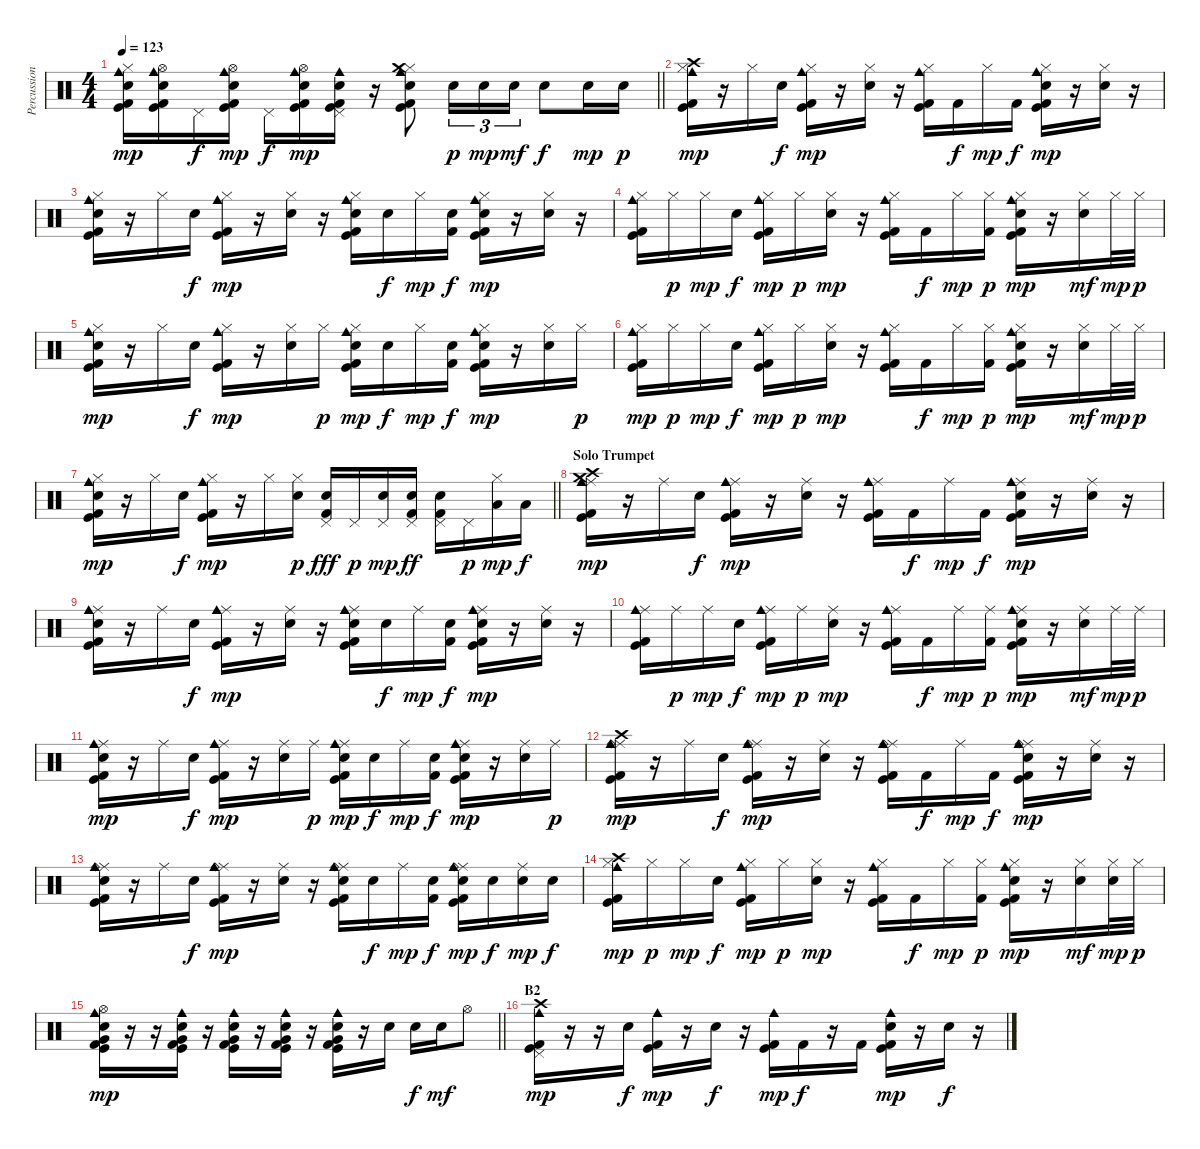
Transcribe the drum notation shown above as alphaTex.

\track ("Percussion" "Percussion") {instrument percussion}
\staff {score}
\articulation defaults
\ts (4 4)
\tempo 123
\clef neutral
\barLineRight lightlight
\ks c
("Hi-Hat (closed)" "Cowbell medium (hit)" "Kick (hit)" "Electric Snare (hit)" "Kick (hit) 2").16{dy mp} ("Hi-Hat (open)" "Cowbell medium (hit)" "Kick (hit)" "Electric Snare (hit)" "Kick (hit) 2").16 "Pedal Hi-Hat (hit)".16{dy f} ("Hi-Hat (open)" "Cowbell medium (hit)" "Kick (hit)" "Electric Snare (hit)" "Kick (hit) 2").16{dy mp} "Pedal Hi-Hat (hit)".16{dy f} ("Hi-Hat (open)" "Cowbell medium (hit)" "Kick (hit)" "Electric Snare (hit)" "Kick (hit) 2").16{dy mp} ("Pedal Hi-Hat (hit)" "Cowbell medium (hit)" "Kick (hit)" "Electric Snare (hit)" "Kick (hit) 2").16 r.16 ("Hi-Hat (closed)" "Cowbell medium (hit)" "Kick (hit)" "Crash medium (hit)" "Electric Snare (hit)" "Kick (hit) 2").8 "Electric Snare (hit)".16{tu (3 2) dy p} "Electric Snare (hit)".16{tu (3 2) dy mp} "Electric Snare (hit)".16{tu (3 2) dy mf} "Electric Snare (hit)".8{dy f} "Electric Snare (hit)".16{dy mp} "Electric Snare (hit)".16{dy p} |
("Hi-Hat (closed)" "Cowbell medium (hit)" "Kick (hit)" "Crash high (hit)" "Kick (hit) 2").16{dy mp} r.16 "Hi-Hat (closed)".16 "Electric Snare (hit)".16{dy f} ("Hi-Hat (closed)" "Cowbell medium (hit)" "Kick (hit)" "Kick (hit) 2").16{dy mp} r.16 ("Hi-Hat (closed)" "Electric Snare (hit)").16 r.16 ("Hi-Hat (closed)" "Cowbell medium (hit)" "Kick (hit)" "Kick (hit) 2").16 "Kick (hit) 2".16{dy f} "Hi-Hat (closed)".16{dy mp} "Kick (hit) 2".16{dy f} ("Hi-Hat (closed)" "Cowbell medium (hit)" "Kick (hit)" "Electric Snare (hit)" "Kick (hit) 2").16{dy mp} r.16 ("Hi-Hat (closed)" "Electric Snare (hit)").16 r.16 |
("Hi-Hat (closed)" "Cowbell medium (hit)" "Kick (hit)" "Electric Snare (hit)" "Kick (hit) 2").16 r.16 "Hi-Hat (closed)".16 "Electric Snare (hit)".16{dy f} ("Hi-Hat (closed)" "Cowbell medium (hit)" "Kick (hit)" "Kick (hit) 2").16{dy mp} r.16 ("Hi-Hat (closed)" "Electric Snare (hit)").16 r.16 ("Hi-Hat (closed)" "Cowbell medium (hit)" "Kick (hit)" "Electric Snare (hit)" "Kick (hit) 2").16 "Electric Snare (hit)".16{dy f} "Hi-Hat (closed)".16{dy mp} ("Electric Snare (hit)" "Kick (hit) 2").16{dy f} ("Hi-Hat (closed)" "Cowbell medium (hit)" "Kick (hit)" "Electric Snare (hit)" "Kick (hit) 2").16{dy mp} r.16 ("Hi-Hat (closed)" "Electric Snare (hit)").16 r.16 |
("Hi-Hat (closed)" "Cowbell medium (hit)" "Kick (hit)" "Kick (hit) 2").16 "Hi-Hat (closed)".16{dy p} "Hi-Hat (closed)".16{dy mp} "Electric Snare (hit)".16{dy f} ("Hi-Hat (closed)" "Cowbell medium (hit)" "Kick (hit)" "Kick (hit) 2").16{dy mp} "Hi-Hat (closed)".16{dy p} ("Hi-Hat (closed)" "Electric Snare (hit)").16{dy mp} r.16 ("Hi-Hat (closed)" "Cowbell medium (hit)" "Kick (hit)" "Kick (hit) 2").16 "Kick (hit) 2".16{dy f} "Hi-Hat (closed)".16{dy mp} ("Hi-Hat (closed)" "Kick (hit) 2").16{dy p} ("Hi-Hat (closed)" "Cowbell medium (hit)" "Kick (hit)" "Electric Snare (hit)" "Kick (hit) 2").16{dy mp} r.16 ("Hi-Hat (closed)" "Electric Snare (hit)").16{dy mf} "Hi-Hat (closed)".32{dy mp} "Hi-Hat (closed)".32{dy p} |
("Hi-Hat (closed)" "Cowbell medium (hit)" "Kick (hit)" "Electric Snare (hit)" "Kick (hit) 2").16{dy mp} r.16 "Hi-Hat (closed)".16 "Electric Snare (hit)".16{dy f} ("Hi-Hat (closed)" "Cowbell medium (hit)" "Kick (hit)" "Kick (hit) 2").16{dy mp} r.16 ("Hi-Hat (closed)" "Electric Snare (hit)").16 "Hi-Hat (closed)".16{dy p} ("Hi-Hat (closed)" "Cowbell medium (hit)" "Kick (hit)" "Electric Snare (hit)" "Kick (hit) 2").16{dy mp} "Electric Snare (hit)".16{dy f} "Hi-Hat (closed)".16{dy mp} ("Electric Snare (hit)" "Kick (hit) 2").16{dy f} ("Hi-Hat (closed)" "Cowbell medium (hit)" "Kick (hit)" "Electric Snare (hit)" "Kick (hit) 2").16{dy mp} r.16 ("Hi-Hat (closed)" "Electric Snare (hit)").16 "Hi-Hat (closed)".16{dy p} |
("Hi-Hat (closed)" "Cowbell medium (hit)" "Kick (hit)" "Kick (hit) 2").16{dy mp} "Hi-Hat (closed)".16{dy p} "Hi-Hat (closed)".16{dy mp} "Electric Snare (hit)".16{dy f} ("Hi-Hat (closed)" "Cowbell medium (hit)" "Kick (hit)" "Kick (hit) 2").16{dy mp} "Hi-Hat (closed)".16{dy p} ("Hi-Hat (closed)" "Electric Snare (hit)").16{dy mp} r.16 ("Hi-Hat (closed)" "Cowbell medium (hit)" "Kick (hit)" "Kick (hit) 2").16 "Kick (hit) 2".16{dy f} "Hi-Hat (closed)".16{dy mp} ("Hi-Hat (closed)" "Kick (hit) 2").16{dy p} ("Hi-Hat (closed)" "Cowbell medium (hit)" "Kick (hit)" "Electric Snare (hit)" "Kick (hit) 2").16{dy mp} r.16 ("Hi-Hat (closed)" "Electric Snare (hit)").16{dy mf} "Hi-Hat (closed)".32{dy mp} "Hi-Hat (closed)".32{dy p} |
\barLineRight lightlight
("Hi-Hat (closed)" "Cowbell medium (hit)" "Kick (hit)" "Electric Snare (hit)" "Kick (hit) 2").16{dy mp} r.16 "Hi-Hat (closed)".16 "Electric Snare (hit)".16{dy f} ("Hi-Hat (closed)" "Cowbell medium (hit)" "Kick (hit)" "Kick (hit) 2").16{dy mp} r.16 "Hi-Hat (closed)".16 ("Hi-Hat (closed)" "Electric Snare (hit)").16{dy p} ("Pedal Hi-Hat (hit)" "Electric Snare (hit)" "Kick (hit) 2").16{dy fff} "Pedal Hi-Hat (hit)".16{dy p} ("Pedal Hi-Hat (hit)" "Electric Snare (hit)").16{dy mp} ("Pedal Hi-Hat (hit)" "Electric Snare (hit)" "Kick (hit) 2").16{dy ff} ("Pedal Hi-Hat (hit)" "Electric Snare (hit)" "Kick (hit) 2").16 "Pedal Hi-Hat (hit)".16{dy p} ("Hi-Hat (closed)" "Low Tom (hit)").16{dy mp} "Low Tom (hit)".16{dy f} |
\section ("" "Solo Trumpet")
("Ride (middle)" "Cowbell medium (hit)" "Kick (hit)" "Crash high (hit)" "Crash medium (hit)" "Kick (hit) 2").16{dy mp} r.16 "Ride (middle)".16 "Electric Snare (hit)".16{dy f} ("Ride (middle)" "Cowbell medium (hit)" "Kick (hit)" "Kick (hit) 2").16{dy mp} r.16 ("Ride (middle)" "Electric Snare (hit)").16 r.16 ("Ride (middle)" "Cowbell medium (hit)" "Kick (hit)" "Kick (hit) 2").16 "Kick (hit) 2".16{dy f} "Ride (middle)".16{dy mp} "Kick (hit) 2".16{dy f} ("Ride (middle)" "Cowbell medium (hit)" "Kick (hit)" "Electric Snare (hit)" "Kick (hit) 2").16{dy mp} r.16 ("Ride (middle)" "Electric Snare (hit)").16 r.16 |
("Ride (middle)" "Cowbell medium (hit)" "Kick (hit)" "Electric Snare (hit)" "Kick (hit) 2").16 r.16 "Ride (middle)".16 "Electric Snare (hit)".16{dy f} ("Ride (middle)" "Cowbell medium (hit)" "Kick (hit)" "Kick (hit) 2").16{dy mp} r.16 ("Ride (middle)" "Electric Snare (hit)").16 r.16 ("Ride (middle)" "Cowbell medium (hit)" "Kick (hit)" "Electric Snare (hit)" "Kick (hit) 2").16 "Electric Snare (hit)".16{dy f} "Ride (middle)".16{dy mp} ("Electric Snare (hit)" "Kick (hit) 2").16{dy f} ("Ride (middle)" "Cowbell medium (hit)" "Kick (hit)" "Electric Snare (hit)" "Kick (hit) 2").16{dy mp} r.16 ("Ride (middle)" "Electric Snare (hit)").16 r.16 |
("Ride (middle)" "Cowbell medium (hit)" "Kick (hit)" "Kick (hit) 2").16 "Ride (middle)".16{dy p} "Ride (middle)".16{dy mp} "Electric Snare (hit)".16{dy f} ("Ride (middle)" "Cowbell medium (hit)" "Kick (hit)" "Kick (hit) 2").16{dy mp} "Ride (middle)".16{dy p} ("Ride (middle)" "Electric Snare (hit)").16{dy mp} r.16 ("Ride (middle)" "Cowbell medium (hit)" "Kick (hit)" "Kick (hit) 2").16 "Kick (hit) 2".16{dy f} "Ride (middle)".16{dy mp} ("Ride (middle)" "Kick (hit) 2").16{dy p} ("Ride (middle)" "Cowbell medium (hit)" "Kick (hit)" "Electric Snare (hit)" "Kick (hit) 2").16{dy mp} r.16 ("Ride (middle)" "Electric Snare (hit)").16{dy mf} "Ride (middle)".32{dy mp} "Ride (middle)".32{dy p} |
("Ride (middle)" "Cowbell medium (hit)" "Kick (hit)" "Electric Snare (hit)" "Kick (hit) 2").16{dy mp} r.16 "Ride (middle)".16 "Electric Snare (hit)".16{dy f} ("Ride (middle)" "Cowbell medium (hit)" "Kick (hit)" "Kick (hit) 2").16{dy mp} r.16 ("Ride (middle)" "Electric Snare (hit)").16 "Ride (middle)".16{dy p} ("Ride (middle)" "Cowbell medium (hit)" "Kick (hit)" "Electric Snare (hit)" "Kick (hit) 2").16{dy mp} "Electric Snare (hit)".16{dy f} "Ride (middle)".16{dy mp} ("Electric Snare (hit)" "Kick (hit) 2").16{dy f} ("Ride (middle)" "Cowbell medium (hit)" "Kick (hit)" "Electric Snare (hit)" "Kick (hit) 2").16{dy mp} r.16 ("Ride (middle)" "Electric Snare (hit)").16 "Ride (middle)".16{dy p} |
("Ride (middle)" "Cowbell medium (hit)" "Kick (hit)" "Crash high (hit)" "Ride (bell)" "Kick (hit) 2").16{dy mp} r.16 "Ride (middle)".16 "Electric Snare (hit)".16{dy f} ("Ride (middle)" "Cowbell medium (hit)" "Kick (hit)" "Ride (bell)" "Kick (hit) 2").16{dy mp} r.16 ("Ride (middle)" "Electric Snare (hit)").16 r.16 ("Ride (middle)" "Cowbell medium (hit)" "Kick (hit)" "Ride (bell)" "Kick (hit) 2").16 "Kick (hit) 2".16{dy f} "Ride (middle)".16{dy mp} "Kick (hit) 2".16{dy f} ("Ride (middle)" "Cowbell medium (hit)" "Kick (hit)" "Ride (bell)" "Electric Snare (hit)" "Kick (hit) 2").16{dy mp} r.16 ("Ride (middle)" "Electric Snare (hit)").16 r.16 |
("Ride (middle)" "Cowbell medium (hit)" "Kick (hit)" "Ride (bell)" "Electric Snare (hit)" "Kick (hit) 2").16 r.16 "Ride (middle)".16 "Electric Snare (hit)".16{dy f} ("Ride (middle)" "Cowbell medium (hit)" "Kick (hit)" "Ride (bell)" "Kick (hit) 2").16{dy mp} r.16 ("Ride (middle)" "Electric Snare (hit)").16 r.16 ("Ride (middle)" "Cowbell medium (hit)" "Kick (hit)" "Ride (bell)" "Electric Snare (hit)" "Kick (hit) 2").16 "Electric Snare (hit)".16{dy f} "Ride (middle)".16{dy mp} ("Electric Snare (hit)" "Kick (hit) 2").16{dy f} ("Ride (middle)" "Cowbell medium (hit)" "Kick (hit)" "Ride (bell)" "Electric Snare (hit)" "Kick (hit) 2").16{dy mp} "Electric Snare (hit)".16{dy f} ("Ride (middle)" "Electric Snare (hit)").16{dy mp} "Electric Snare (hit)".16{dy f} |
("Hi-Hat (closed)" "Cowbell medium (hit)" "Kick (hit)" "Crash high (hit)" "Kick (hit) 2").16{dy mp} "Hi-Hat (closed)".16{dy p} "Hi-Hat (closed)".16{dy mp} "Electric Snare (hit)".16{dy f} ("Hi-Hat (closed)" "Cowbell medium (hit)" "Kick (hit)" "Kick (hit) 2").16{dy mp} "Hi-Hat (closed)".16{dy p} ("Hi-Hat (closed)" "Electric Snare (hit)").16{dy mp} r.16 ("Hi-Hat (closed)" "Cowbell medium (hit)" "Kick (hit)" "Kick (hit) 2").16 "Kick (hit) 2".16{dy f} "Hi-Hat (closed)".16{dy mp} ("Hi-Hat (closed)" "Kick (hit) 2").16{dy p} ("Hi-Hat (closed)" "Cowbell medium (hit)" "Kick (hit)" "Electric Snare (hit)" "Kick (hit) 2").16{dy mp} r.16 ("Hi-Hat (closed)" "Electric Snare (hit)").16{dy mf} ("Hi-Hat (closed)" "Electric Snare (hit)").32{dy mp} "Hi-Hat (closed)".32{dy p} |
\barLineRight lightlight
("Hi-Hat (open)" "Cowbell medium (hit)" "Kick (hit)" "Very Low Tom (hit)" "Electric Snare (hit)" "Kick (hit) 2").16{dy mp} r.16 r.16 ("Cowbell medium (hit)" "Kick (hit)" "Very Low Tom (hit)" "Electric Snare (hit)" "Kick (hit) 2").16 r.16 ("Cowbell medium (hit)" "Kick (hit)" "Very Low Tom (hit)" "Electric Snare (hit)" "Kick (hit) 2").16 r.16 ("Cowbell medium (hit)" "Kick (hit)" "Very Low Tom (hit)" "Electric Snare (hit)" "Kick (hit) 2").16 r.16 ("Cowbell medium (hit)" "Kick (hit)" "Very Low Tom (hit)" "Electric Snare (hit)" "Kick (hit) 2").16 r.16 "Electric Snare (hit)".16 "Electric Snare (hit)".16{dy f} "Electric Snare (hit)".16{dy mf} "Hi-Hat (open)".8 |
\section ("" "B2")
("Pedal Hi-Hat (hit)" "Cowbell medium (hit)" "Kick (hit)" "Crash high (hit)" "Kick (hit) 2").16{dy mp} r.16 r.16 "Electric Snare (hit)".16{dy f} ("Cowbell medium (hit)" "Kick (hit)" "Kick (hit) 2").16{dy mp} r.16 "Electric Snare (hit)".16{dy f} r.16 ("Cowbell medium (hit)" "Kick (hit)" "Kick (hit) 2").16{dy mp} "Kick (hit) 2".16{dy f} r.16 "Kick (hit) 2".16 ("Cowbell medium (hit)" "Kick (hit)" "Electric Snare (hit)" "Kick (hit) 2").16{dy mp} r.16 "Electric Snare (hit)".16{dy f} r.16
